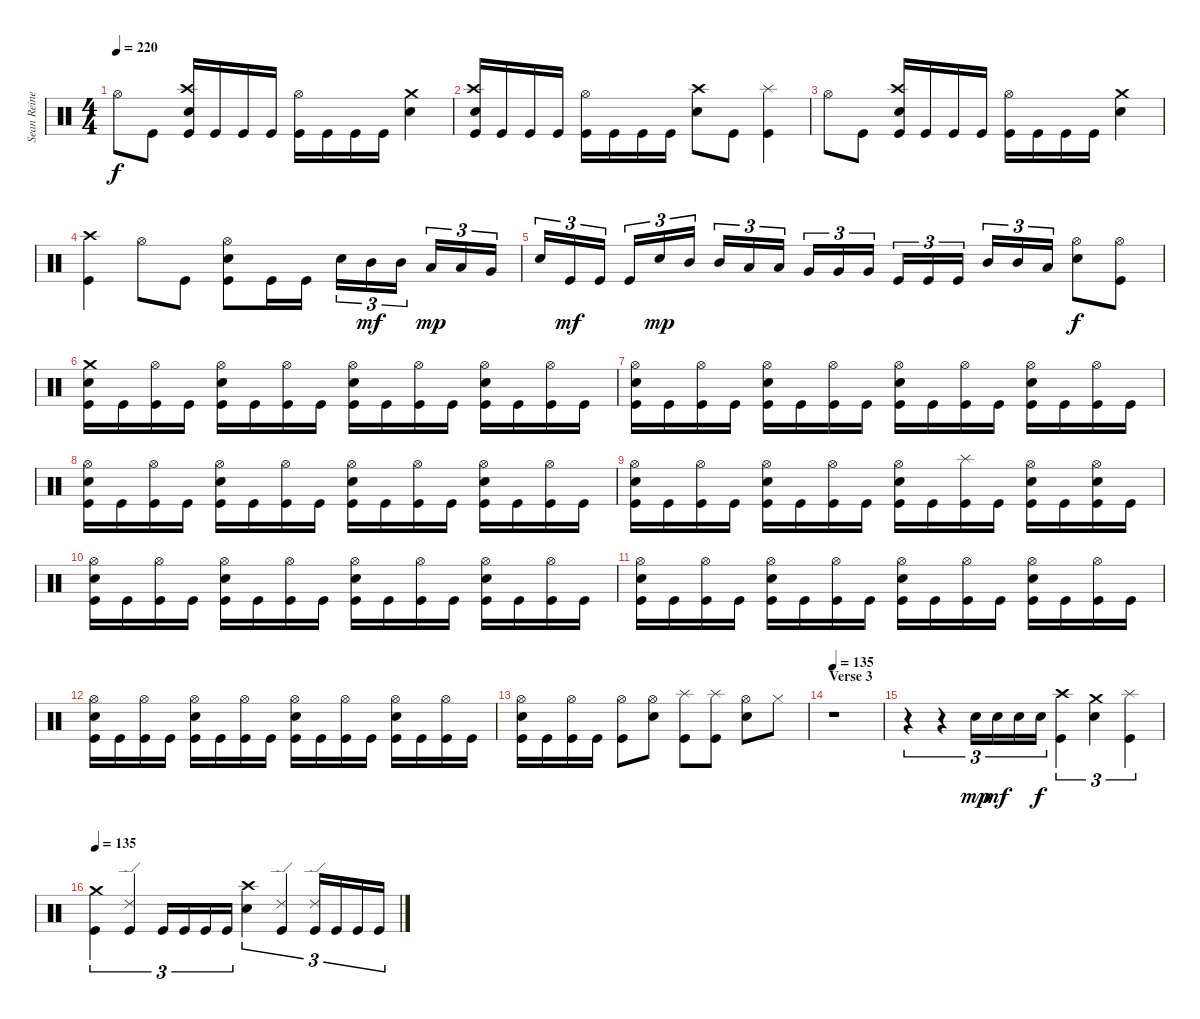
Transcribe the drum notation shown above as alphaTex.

\track ("Sean Reinert " "Sean Reine") {instrument percussion}
\staff {score}
\articulation defaults
\ts (4 4)
\tempo 220
\clef neutral
\ks c "Hi-Hat (open)".8{dy f} "Kick (hit)".8
("Crash high (hit)" "Electric Snare (hit)" "Kick (hit)").16 "Kick (hit)".16 "Kick (hit)".16 "Kick (hit)".16 ("Hi-Hat (open)" "Kick (hit)").16 "Kick (hit)".16 "Kick (hit)".16 "Kick (hit)".16 ("Crash medium (hit)" "Electric Snare (hit)").4 |
("Crash high (hit)" "Electric Snare (hit)" "Kick (hit)").16 "Kick (hit)".16 "Kick (hit)".16 "Kick (hit)".16 ("Hi-Hat (open)" "Kick (hit)").16 "Kick (hit)".16 "Kick (hit)".16 "Kick (hit)".16 ("Crash high (hit)" "Electric Snare (hit)").8 "Kick (hit)".8 ("Splash (hit)" "Kick (hit)").4 |
"Hi-Hat (open)".8 "Kick (hit)".8 ("Crash high (hit)" "Electric Snare (hit)" "Kick (hit)").16 "Kick (hit)".16 "Kick (hit)".16 "Kick (hit)".16 ("Hi-Hat (open)" "Kick (hit)").16 "Kick (hit)".16 "Kick (hit)".16 "Kick (hit)".16 ("Crash medium (hit)" "Electric Snare (hit)").4 |
("Crash high (hit)" "Kick (hit)").4 "Hi-Hat (open)".8 "Kick (hit)".8 ("Hi-Hat (open)" "Electric Snare (hit)" "Kick (hit)").8 "Kick (hit)".16 "Kick (hit)".16 "Electric Snare (hit)".16{tu (3 2)} "Mid Tom (hit)".16{tu (3 2) dy mf} "Mid Tom (hit)".16{tu (3 2)} "Low Tom (hit)".16{tu (3 2) dy mp} "Low Tom (hit)".16{tu (3 2)} "Very Low Tom (hit)".16{tu (3 2)} |
"Electric Snare (hit)".16{tu (3 2)} "Kick (hit)".16{tu (3 2) dy mf} "Kick (hit)".16{tu (3 2)} "Kick (hit)".16{tu (3 2)} "Electric Snare (hit)".16{tu (3 2) dy mp} "Mid Tom (hit)".16{tu (3 2)} "Mid Tom (hit)".16{tu (3 2)} "Low Tom (hit)".16{tu (3 2)} "Low Tom (hit)".16{tu (3 2)} "Very Low Tom (hit)".16{tu (3 2)} "Very Low Tom (hit)".16{tu (3 2)} "Very Low Tom (hit)".16{tu (3 2)} "Kick (hit)".16{tu (3 2)} "Kick (hit)".16{tu (3 2)} "Kick (hit)".16{tu (3 2)} "Mid Tom (hit)".16{tu (3 2)} "Mid Tom (hit)".16{tu (3 2)} "Low Tom (hit)".16{tu (3 2)} ("Hi-Hat (open)" "Electric Snare (hit)").8{dy f} ("Hi-Hat (open)" "Kick (hit)").8 |
("Crash medium (hit)" "Electric Snare (hit)" "Kick (hit)").16 "Kick (hit)".16 ("Hi-Hat (open)" "Kick (hit)").16 "Kick (hit)".16 ("Hi-Hat (open)" "Electric Snare (hit)" "Kick (hit)").16 "Kick (hit)".16 ("Hi-Hat (open)" "Kick (hit)").16 "Kick (hit)".16 ("Hi-Hat (open)" "Electric Snare (hit)" "Kick (hit)").16 "Kick (hit)".16 ("Hi-Hat (open)" "Kick (hit)").16 "Kick (hit)".16 ("Hi-Hat (open)" "Electric Snare (hit)" "Kick (hit)").16 "Kick (hit)".16 ("Hi-Hat (open)" "Kick (hit)").16 "Kick (hit)".16 |
("Hi-Hat (open)" "Electric Snare (hit)" "Kick (hit)").16 "Kick (hit)".16 ("Hi-Hat (open)" "Kick (hit)").16 "Kick (hit)".16 ("Hi-Hat (open)" "Electric Snare (hit)" "Kick (hit)").16 "Kick (hit)".16 ("Hi-Hat (open)" "Kick (hit)").16 "Kick (hit)".16 ("Hi-Hat (open)" "Electric Snare (hit)" "Kick (hit)").16 "Kick (hit)".16 ("Hi-Hat (open)" "Kick (hit)").16 "Kick (hit)".16 ("Hi-Hat (open)" "Electric Snare (hit)" "Kick (hit)").16 "Kick (hit)".16 ("Hi-Hat (open)" "Kick (hit)").16 "Kick (hit)".16 |
("Hi-Hat (open)" "Electric Snare (hit)" "Kick (hit)").16 "Kick (hit)".16 ("Hi-Hat (open)" "Kick (hit)").16 "Kick (hit)".16 ("Hi-Hat (open)" "Electric Snare (hit)" "Kick (hit)").16 "Kick (hit)".16 ("Hi-Hat (open)" "Kick (hit)").16 "Kick (hit)".16 ("Hi-Hat (open)" "Electric Snare (hit)" "Kick (hit)").16 "Kick (hit)".16 ("Hi-Hat (open)" "Kick (hit)").16 "Kick (hit)".16 ("Hi-Hat (open)" "Electric Snare (hit)" "Kick (hit)").16 "Kick (hit)".16 ("Hi-Hat (open)" "Kick (hit)").16 "Kick (hit)".16 |
("Hi-Hat (open)" "Electric Snare (hit)" "Kick (hit)").16 "Kick (hit)".16 ("Hi-Hat (open)" "Kick (hit)").16 "Kick (hit)".16 ("Hi-Hat (open)" "Electric Snare (hit)" "Kick (hit)").16 "Kick (hit)".16 ("Hi-Hat (open)" "Kick (hit)").16 "Kick (hit)".16 ("Hi-Hat (open)" "Electric Snare (hit)" "Kick (hit)").16 "Kick (hit)".16 ("Splash (hit)" "Kick (hit)").16 "Kick (hit)".16 ("Hi-Hat (open)" "Electric Snare (hit)" "Kick (hit)").16 "Kick (hit)".16 ("Hi-Hat (open)" "Electric Snare (hit)" "Kick (hit)").16 "Kick (hit)".16 |
("Hi-Hat (open)" "Electric Snare (hit)" "Kick (hit)").16 "Kick (hit)".16 ("Hi-Hat (open)" "Kick (hit)").16 "Kick (hit)".16 ("Hi-Hat (open)" "Electric Snare (hit)" "Kick (hit)").16 "Kick (hit)".16 ("Hi-Hat (open)" "Kick (hit)").16 "Kick (hit)".16 ("Hi-Hat (open)" "Electric Snare (hit)" "Kick (hit)").16 "Kick (hit)".16 ("Hi-Hat (open)" "Kick (hit)").16 "Kick (hit)".16 ("Hi-Hat (open)" "Electric Snare (hit)" "Kick (hit)").16 "Kick (hit)".16 ("Hi-Hat (open)" "Kick (hit)").16 "Kick (hit)".16 |
("Hi-Hat (open)" "Electric Snare (hit)" "Kick (hit)").16 "Kick (hit)".16 ("Hi-Hat (open)" "Kick (hit)").16 "Kick (hit)".16 ("Hi-Hat (open)" "Electric Snare (hit)" "Kick (hit)").16 "Kick (hit)".16 ("Hi-Hat (open)" "Kick (hit)").16 "Kick (hit)".16 ("Hi-Hat (open)" "Electric Snare (hit)" "Kick (hit)").16 "Kick (hit)".16 ("Hi-Hat (open)" "Kick (hit)").16 "Kick (hit)".16 ("Hi-Hat (open)" "Electric Snare (hit)" "Kick (hit)").16 "Kick (hit)".16 ("Hi-Hat (open)" "Kick (hit)").16 "Kick (hit)".16 |
("Hi-Hat (open)" "Electric Snare (hit)" "Kick (hit)").16 "Kick (hit)".16 ("Hi-Hat (open)" "Kick (hit)").16 "Kick (hit)".16 ("Hi-Hat (open)" "Electric Snare (hit)" "Kick (hit)").16 "Kick (hit)".16 ("Hi-Hat (open)" "Kick (hit)").16 "Kick (hit)".16 ("Hi-Hat (open)" "Electric Snare (hit)" "Kick (hit)").16 "Kick (hit)".16 ("Hi-Hat (open)" "Kick (hit)").16 "Kick (hit)".16 ("Hi-Hat (open)" "Electric Snare (hit)" "Kick (hit)").16 "Kick (hit)".16 ("Hi-Hat (open)" "Kick (hit)").16 "Kick (hit)".16 |
("Hi-Hat (open)" "Electric Snare (hit)" "Kick (hit)").16 "Kick (hit)".16 ("Hi-Hat (open)" "Kick (hit)").16 "Kick (hit)".16 ("Hi-Hat (open)" "Kick (hit)").8 ("Hi-Hat (open)" "Electric Snare (hit)").8 ("Splash (hit)" "Kick (hit)").8 ("Splash (hit)" "Kick (hit)").8 ("Hi-Hat (open)" "Electric Snare (hit)").8 "Hi-Hat (closed)".8 |
\section ("" "Verse 3")
\tempo 135
r.1 |
r.4{tu (3 2)} r.4{tu (3 2)} "Electric Snare (hit)".16{tu (3 2) dy mp} "Electric Snare (hit)".16{tu (3 2) dy mf} "Electric Snare (hit)".16{tu (3 2)} "Electric Snare (hit)".16{tu (3 2) dy f} ("Crash high (hit)" "Kick (hit)").4{tu (3 2)} ("Crash medium (hit)" "Electric Snare (hit)").4{tu (3 2)} ("Splash (hit)" "Kick (hit)").4{tu (3 2)} |
\tempo 135
("Crash medium (hit)" "Kick (hit)").4{tu (3 2)} ("Ride (edge) 2" "Kick (hit)").4{tu (3 2)} "Kick (hit)".16{tu (3 2)} "Kick (hit)".16{tu (3 2)} "Kick (hit)".16{tu (3 2)} "Kick (hit)".16{tu (3 2)} ("Crash high (hit)" "Electric Snare (hit)").4{tu (3 2)} ("Ride (edge) 2" "Kick (hit)").4{tu (3 2)} ("Ride (edge) 2" "Kick (hit)").16{tu (3 2)} "Kick (hit)".16{tu (3 2)} "Kick (hit)".16{tu (3 2)} "Kick (hit)".16{tu (3 2)}
